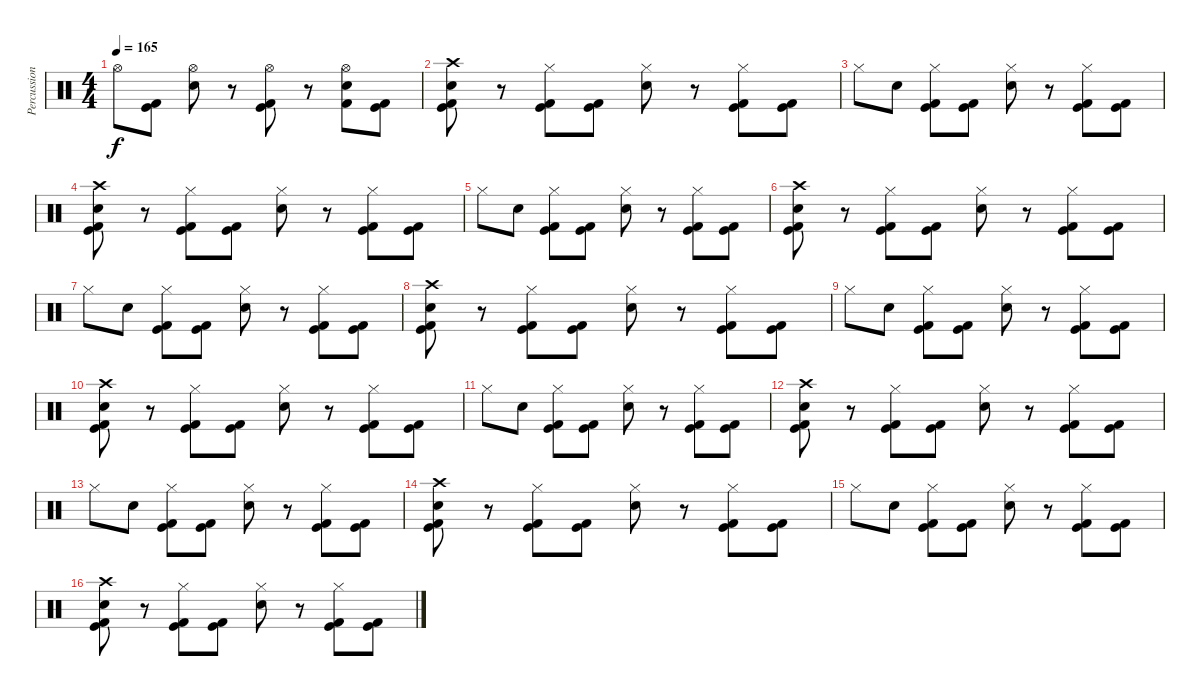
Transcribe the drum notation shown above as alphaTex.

\track ("Percussions" "Percussion") {instrument percussion}
\staff {score}
\articulation defaults
\ts (4 4)
\tempo 165
\clef neutral
\ks c "Hi-Hat (open)".8{dy f}
("Kick (hit) 2" "Kick (hit)").8 ("Snare (hit) 2" "Hi-Hat (open)").8 r.8 ("Kick (hit) 2" "Kick (hit)" "Hi-Hat (open)").8 r.8 ("Kick (hit) 2" "Snare (hit) 2" "Hi-Hat (open)").8 ("Kick (hit) 2" "Kick (hit)").8 |
("Snare (hit) 2" "Kick (hit)" "Kick (hit) 2" "Crash high (hit)").8 r.8 ("Kick (hit)" "Kick (hit) 2" "Hi-Hat (closed)").8 ("Kick (hit)" "Kick (hit) 2").8 ("Snare (hit) 2" "Hi-Hat (closed)").8 r.8 ("Kick (hit)" "Kick (hit) 2" "Hi-Hat (closed)").8 ("Kick (hit)" "Kick (hit) 2").8 |
"Hi-Hat (closed)".8 "Snare (hit) 2".8 ("Kick (hit)" "Kick (hit) 2" "Hi-Hat (closed)").8 ("Kick (hit)" "Kick (hit) 2").8 ("Snare (hit) 2" "Hi-Hat (closed)").8 r.8 ("Kick (hit)" "Kick (hit) 2" "Hi-Hat (closed)").8 ("Kick (hit)" "Kick (hit) 2").8 |
("Snare (hit) 2" "Kick (hit)" "Kick (hit) 2" "Crash high (hit)").8 r.8 ("Kick (hit)" "Kick (hit) 2" "Hi-Hat (closed)").8 ("Kick (hit)" "Kick (hit) 2").8 ("Snare (hit) 2" "Hi-Hat (closed)").8 r.8 ("Kick (hit)" "Kick (hit) 2" "Hi-Hat (closed)").8 ("Kick (hit)" "Kick (hit) 2").8 |
"Hi-Hat (closed)".8 "Snare (hit) 2".8 ("Kick (hit)" "Kick (hit) 2" "Hi-Hat (closed)").8 ("Kick (hit)" "Kick (hit) 2").8 ("Snare (hit) 2" "Hi-Hat (closed)").8 r.8 ("Kick (hit)" "Kick (hit) 2" "Hi-Hat (closed)").8 ("Kick (hit)" "Kick (hit) 2").8 |
("Snare (hit) 2" "Kick (hit)" "Kick (hit) 2" "Crash high (hit)").8 r.8 ("Kick (hit)" "Kick (hit) 2" "Hi-Hat (closed)").8 ("Kick (hit)" "Kick (hit) 2").8 ("Snare (hit) 2" "Hi-Hat (closed)").8 r.8 ("Kick (hit)" "Kick (hit) 2" "Hi-Hat (closed)").8 ("Kick (hit)" "Kick (hit) 2").8 |
"Hi-Hat (closed)".8 "Snare (hit) 2".8 ("Kick (hit)" "Kick (hit) 2" "Hi-Hat (closed)").8 ("Kick (hit)" "Kick (hit) 2").8 ("Snare (hit) 2" "Hi-Hat (closed)").8 r.8 ("Kick (hit)" "Kick (hit) 2" "Hi-Hat (closed)").8 ("Kick (hit)" "Kick (hit) 2").8 |
("Snare (hit) 2" "Kick (hit)" "Kick (hit) 2" "Crash high (hit)").8 r.8 ("Kick (hit)" "Kick (hit) 2" "Hi-Hat (closed)").8 ("Kick (hit)" "Kick (hit) 2").8 ("Snare (hit) 2" "Hi-Hat (closed)").8 r.8 ("Kick (hit)" "Kick (hit) 2" "Hi-Hat (closed)").8 ("Kick (hit)" "Kick (hit) 2").8 |
"Hi-Hat (closed)".8 "Snare (hit) 2".8 ("Kick (hit)" "Kick (hit) 2" "Hi-Hat (closed)").8 ("Kick (hit)" "Kick (hit) 2").8 ("Snare (hit) 2" "Hi-Hat (closed)").8 r.8 ("Kick (hit)" "Kick (hit) 2" "Hi-Hat (closed)").8 ("Kick (hit)" "Kick (hit) 2").8 |
("Snare (hit) 2" "Kick (hit)" "Kick (hit) 2" "Crash high (hit)").8 r.8 ("Kick (hit)" "Kick (hit) 2" "Hi-Hat (closed)").8 ("Kick (hit)" "Kick (hit) 2").8 ("Snare (hit) 2" "Hi-Hat (closed)").8 r.8 ("Kick (hit)" "Kick (hit) 2" "Hi-Hat (closed)").8 ("Kick (hit)" "Kick (hit) 2").8 |
"Hi-Hat (closed)".8 "Snare (hit) 2".8 ("Kick (hit)" "Kick (hit) 2" "Hi-Hat (closed)").8 ("Kick (hit)" "Kick (hit) 2").8 ("Snare (hit) 2" "Hi-Hat (closed)").8 r.8 ("Kick (hit)" "Kick (hit) 2" "Hi-Hat (closed)").8 ("Kick (hit)" "Kick (hit) 2").8 |
("Snare (hit) 2" "Kick (hit)" "Kick (hit) 2" "Crash high (hit)").8 r.8 ("Kick (hit)" "Kick (hit) 2" "Hi-Hat (closed)").8 ("Kick (hit)" "Kick (hit) 2").8 ("Snare (hit) 2" "Hi-Hat (closed)").8 r.8 ("Kick (hit)" "Kick (hit) 2" "Hi-Hat (closed)").8 ("Kick (hit)" "Kick (hit) 2").8 |
"Hi-Hat (closed)".8 "Snare (hit) 2".8 ("Kick (hit)" "Kick (hit) 2" "Hi-Hat (closed)").8 ("Kick (hit)" "Kick (hit) 2").8 ("Snare (hit) 2" "Hi-Hat (closed)").8 r.8 ("Kick (hit)" "Kick (hit) 2" "Hi-Hat (closed)").8 ("Kick (hit)" "Kick (hit) 2").8 |
("Snare (hit) 2" "Kick (hit)" "Kick (hit) 2" "Crash high (hit)").8 r.8 ("Kick (hit)" "Kick (hit) 2" "Hi-Hat (closed)").8 ("Kick (hit)" "Kick (hit) 2").8 ("Snare (hit) 2" "Hi-Hat (closed)").8 r.8 ("Kick (hit)" "Kick (hit) 2" "Hi-Hat (closed)").8 ("Kick (hit)" "Kick (hit) 2").8 |
"Hi-Hat (closed)".8 "Snare (hit) 2".8 ("Kick (hit)" "Kick (hit) 2" "Hi-Hat (closed)").8 ("Kick (hit)" "Kick (hit) 2").8 ("Snare (hit) 2" "Hi-Hat (closed)").8 r.8 ("Kick (hit)" "Kick (hit) 2" "Hi-Hat (closed)").8 ("Kick (hit)" "Kick (hit) 2").8 |
("Snare (hit) 2" "Kick (hit)" "Kick (hit) 2" "Crash high (hit)").8 r.8 ("Kick (hit)" "Kick (hit) 2" "Hi-Hat (closed)").8 ("Kick (hit)" "Kick (hit) 2").8 ("Snare (hit) 2" "Hi-Hat (closed)").8 r.8 ("Kick (hit)" "Kick (hit) 2" "Hi-Hat (closed)").8 ("Kick (hit)" "Kick (hit) 2").8
